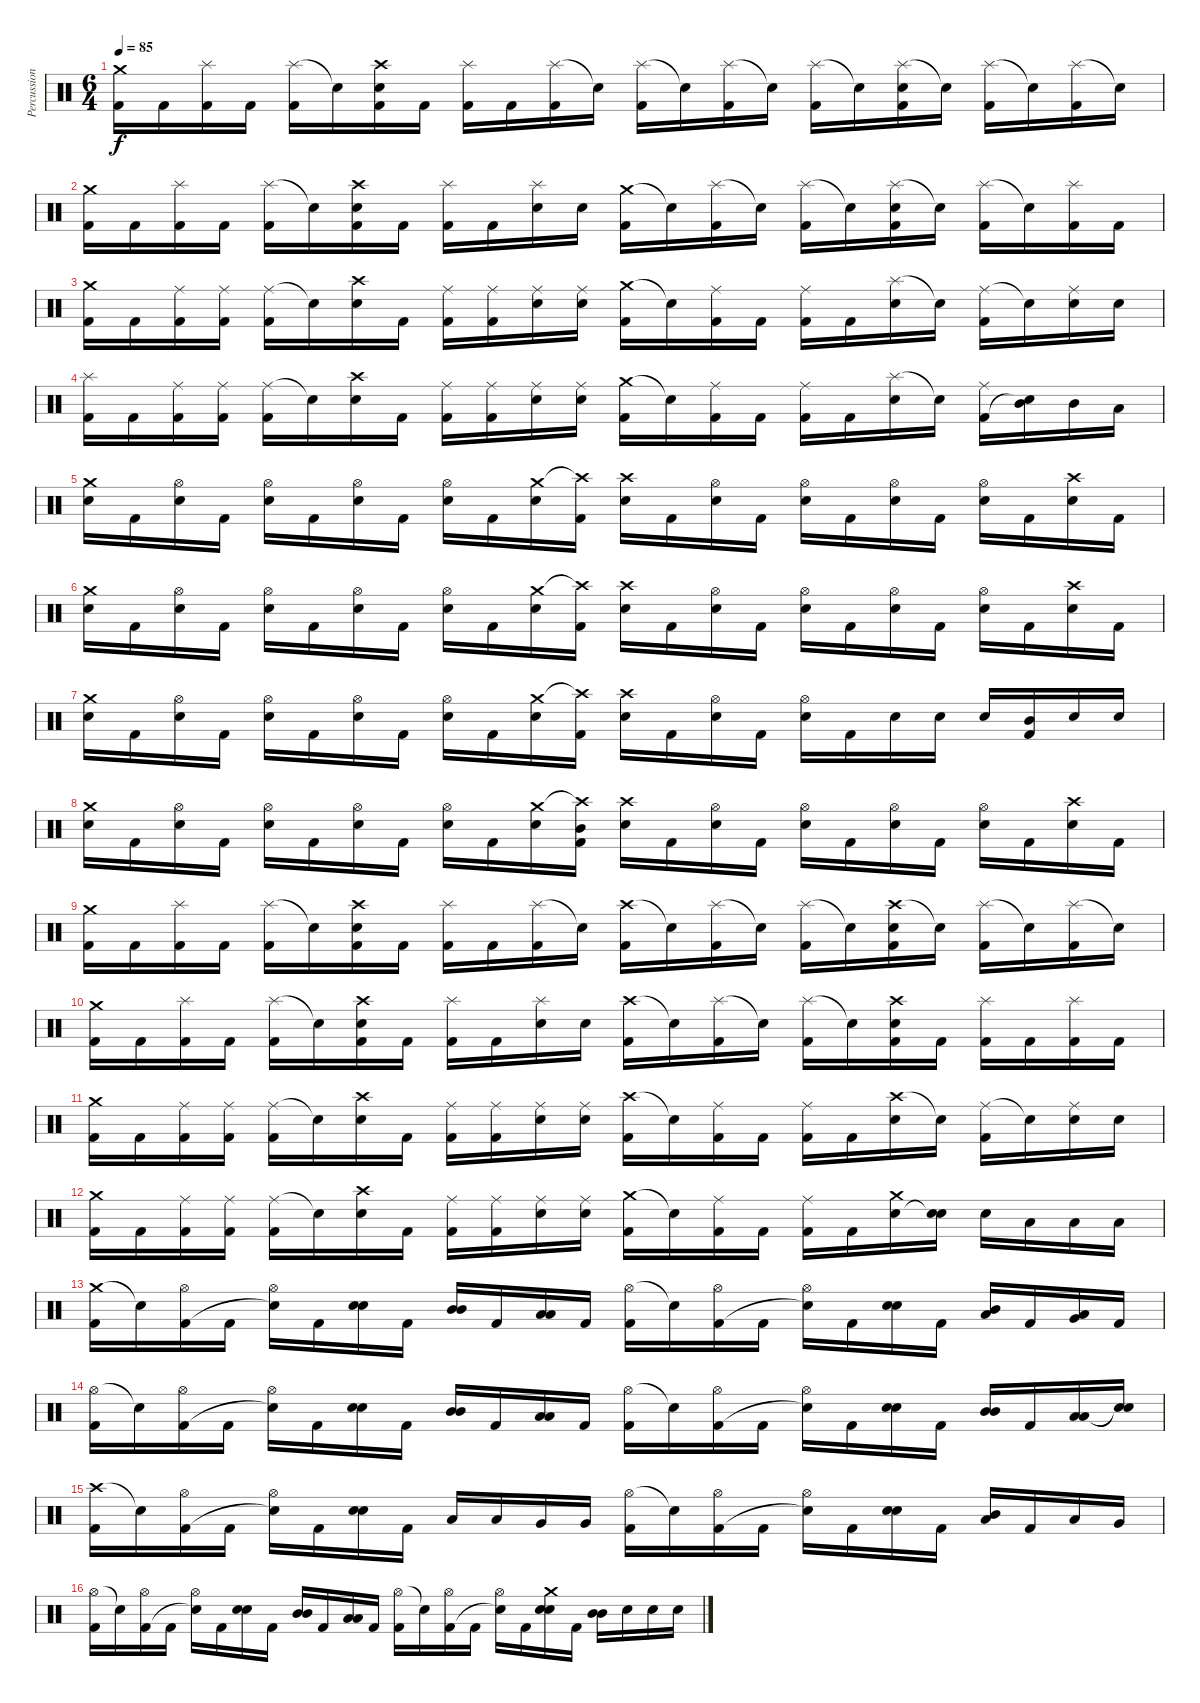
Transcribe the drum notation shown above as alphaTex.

\track ("Percussion" "Percussion") {instrument percussion}
\staff {score}
\articulation defaults
\ts (6 4)
\tempo 85
\clef neutral
\ks c
("Crash medium (hit)" "Kick (hit) 2").16{dy f} "Kick (hit) 2".16 ("Splash (hit)" "Kick (hit) 2").16 "Kick (hit) 2".16 ("Splash (hit)" "Kick (hit) 2").16 "Snare (hit)"{t}.16 ("Crash high (hit)" "Snare (hit) 2" "Kick (hit) 2").16 "Kick (hit) 2".16 ("Splash (hit)" "Kick (hit) 2").16 "Kick (hit) 2".16 ("Splash (hit)" "Kick (hit) 2").16 "Snare (hit)"{t}.16 ("Splash (hit)" "Kick (hit) 2").16 "Snare (hit)"{t}.16 ("Splash (hit)" "Kick (hit) 2").16 "Snare (hit)"{t}.16 ("Splash (hit)" "Kick (hit) 2").16 "Snare (hit)"{t}.16 ("Splash (hit)" "Snare (hit) 2" "Kick (hit) 2").16 "Snare (hit)"{t}.16 ("Splash (hit)" "Kick (hit) 2").16 "Snare (hit)"{t}.16 ("Splash (hit)" "Kick (hit) 2").16 "Snare (hit)"{t}.16 |
("Crash medium (hit)" "Kick (hit) 2").16 "Kick (hit) 2".16 ("Splash (hit)" "Kick (hit) 2").16 "Kick (hit) 2".16 ("Splash (hit)" "Kick (hit) 2").16 "Snare (hit)"{t}.16 ("Crash high (hit)" "Snare (hit) 2" "Kick (hit) 2").16 "Kick (hit) 2".16 ("Splash (hit)" "Kick (hit) 2").16 "Kick (hit) 2".16 ("Splash (hit)" "Snare (hit) 2").16 "Snare (hit) 2".16 ("Crash medium (hit)" "Kick (hit) 2").16 "Snare (hit)"{t}.16 ("Splash (hit)" "Kick (hit) 2").16 "Snare (hit)"{t}.16 ("Splash (hit)" "Kick (hit) 2").16 "Snare (hit)"{t}.16 ("Splash (hit)" "Snare (hit) 2" "Kick (hit) 2").16 "Snare (hit)"{t}.16 ("Splash (hit)" "Kick (hit) 2").16 "Snare (hit)"{t}.16 ("Splash (hit)" "Kick (hit) 2").16 "Kick (hit) 2".16 |
("Crash medium (hit)" "Kick (hit) 2").16 "Kick (hit) 2".16 ("Ride (middle)" "Kick (hit) 2").16 ("Ride (middle)" "Kick (hit) 2").16 ("Ride (middle)" "Kick (hit) 2").16 "Snare (hit)"{t}.16 ("Crash high (hit)" "Snare (hit) 2").16 "Kick (hit) 2".16 ("Ride (middle)" "Kick (hit) 2").16 ("Ride (middle)" "Kick (hit) 2").16 ("Ride (middle)" "Snare (hit) 2").16 ("Ride (middle)" "Snare (hit) 2").16 ("Crash medium (hit)" "Kick (hit) 2").16 "Snare (hit)"{t}.16 ("Ride (middle)" "Kick (hit) 2").16 "Kick (hit) 2".16 ("Ride (middle)" "Kick (hit) 2").16 "Kick (hit) 2".16 ("Splash (hit)" "Snare (hit) 2").16 "Snare (hit)"{t}.16 ("Ride (middle)" "Kick (hit) 2").16 "Snare (hit)"{t}.16 ("Ride (middle)" "Snare (hit) 2").16 "Snare (hit) 2".16 |
("Splash (hit)" "Kick (hit) 2").16 "Kick (hit) 2".16 ("Ride (middle)" "Kick (hit) 2").16 ("Ride (middle)" "Kick (hit) 2").16 ("Ride (middle)" "Kick (hit) 2").16 "Snare (hit)"{t}.16 ("Crash high (hit)" "Snare (hit) 2").16 "Kick (hit) 2".16 ("Ride (middle)" "Kick (hit) 2").16 ("Ride (middle)" "Kick (hit) 2").16 ("Ride (middle)" "Snare (hit) 2").16 ("Ride (middle)" "Snare (hit) 2").16 ("Crash medium (hit)" "Kick (hit) 2").16 "Snare (hit)"{t}.16 ("Ride (middle)" "Kick (hit) 2").16 "Kick (hit) 2".16 ("Ride (middle)" "Kick (hit) 2").16 "Kick (hit) 2".16 ("Splash (hit)" "Snare (hit) 2").16 "Snare (hit)"{t}.16 ("Ride (middle)" "Kick (hit) 2").16 ("Mid Tom (hit)" "Snare (hit)"{t}).16 "Mid Tom (hit)".16 "Low Tom (hit)".16 |
("Crash medium (hit)" "Snare (hit) 2").16 "Kick (hit) 2".16 ("Hi-Hat (open)" "Snare (hit) 2").16 "Kick (hit) 2".16 ("Hi-Hat (open)" "Snare (hit) 2").16 "Kick (hit) 2".16 ("Hi-Hat (open)" "Snare (hit) 2").16 "Kick (hit) 2".16 ("Hi-Hat (open)" "Snare (hit) 2").16 "Kick (hit) 2".16 ("Crash medium (hit)" "Snare (hit) 2").16 ("Crash high (hit)"{t} "Kick (hit) 2").16 ("Crash high (hit)" "Snare (hit) 2").16 "Kick (hit) 2".16 ("Hi-Hat (open)" "Snare (hit) 2").16 "Kick (hit) 2".16 ("Hi-Hat (open)" "Snare (hit) 2").16 "Kick (hit) 2".16 ("Hi-Hat (open)" "Snare (hit) 2").16 "Kick (hit) 2".16 ("Hi-Hat (open)" "Snare (hit) 2").16 "Kick (hit) 2".16 ("Crash high (hit)" "Snare (hit) 2").16 "Kick (hit) 2".16 |
("Crash medium (hit)" "Snare (hit) 2").16 "Kick (hit) 2".16 ("Hi-Hat (open)" "Snare (hit) 2").16 "Kick (hit) 2".16 ("Hi-Hat (open)" "Snare (hit) 2").16 "Kick (hit) 2".16 ("Hi-Hat (open)" "Snare (hit) 2").16 "Kick (hit) 2".16 ("Hi-Hat (open)" "Snare (hit) 2").16 "Kick (hit) 2".16 ("Crash medium (hit)" "Snare (hit) 2").16 ("Crash high (hit)"{t} "Kick (hit) 2").16 ("Crash high (hit)" "Snare (hit) 2").16 "Kick (hit) 2".16 ("Hi-Hat (open)" "Snare (hit) 2").16 "Kick (hit) 2".16 ("Hi-Hat (open)" "Snare (hit) 2").16 "Kick (hit) 2".16 ("Hi-Hat (open)" "Snare (hit) 2").16 "Kick (hit) 2".16 ("Hi-Hat (open)" "Snare (hit) 2").16 "Kick (hit) 2".16 ("Crash high (hit)" "Snare (hit) 2").16 "Kick (hit) 2".16 |
("Crash medium (hit)" "Snare (hit) 2").16 "Kick (hit) 2".16 ("Hi-Hat (open)" "Snare (hit) 2").16 "Kick (hit) 2".16 ("Hi-Hat (open)" "Snare (hit) 2").16 "Kick (hit) 2".16 ("Hi-Hat (open)" "Snare (hit) 2").16 "Kick (hit) 2".16 ("Hi-Hat (open)" "Snare (hit) 2").16 "Kick (hit) 2".16 ("Crash medium (hit)" "Snare (hit) 2").16 ("Crash high (hit)"{t} "Kick (hit) 2").16 ("Crash high (hit)" "Snare (hit) 2").16 "Kick (hit) 2".16 ("Hi-Hat (open)" "Snare (hit) 2").16 "Kick (hit) 2".16 ("Hi-Hat (open)" "Snare (hit) 2").16 "Kick (hit) 2".16 "Snare (hit) 2".16 "Snare (hit) 2".16 "Snare (hit) 2".16 ("Mid Tom (hit)" "Kick (hit) 2").16 "Snare (hit) 2".16 "Snare (hit) 2".16 |
("Crash medium (hit)" "Snare (hit) 2").16 "Kick (hit) 2".16 ("Hi-Hat (open)" "Snare (hit) 2").16 "Kick (hit) 2".16 ("Hi-Hat (open)" "Snare (hit) 2").16 "Kick (hit) 2".16 ("Hi-Hat (open)" "Snare (hit) 2").16 "Kick (hit) 2".16 ("Hi-Hat (open)" "Snare (hit) 2").16 "Kick (hit) 2".16 ("Crash medium (hit)" "Snare (hit) 2").16 ("Crash high (hit)"{t} "Mid Tom (hit)" "Kick (hit) 2").16 ("Crash high (hit)" "Snare (hit) 2").16 "Kick (hit) 2".16 ("Hi-Hat (open)" "Snare (hit) 2").16 "Kick (hit) 2".16 ("Hi-Hat (open)" "Snare (hit) 2").16 "Kick (hit) 2".16 ("Hi-Hat (open)" "Snare (hit) 2").16 "Kick (hit) 2".16 ("Hi-Hat (open)" "Snare (hit) 2").16 "Kick (hit) 2".16 ("Crash high (hit)" "Snare (hit) 2").16 "Kick (hit) 2".16 |
("Crash medium (hit)" "Kick (hit) 2").16 "Kick (hit) 2".16 ("Splash (hit)" "Kick (hit) 2").16 "Kick (hit) 2".16 ("Splash (hit)" "Kick (hit) 2").16 "Snare (hit)"{t}.16 ("Crash high (hit)" "Snare (hit) 2" "Kick (hit) 2").16 "Kick (hit) 2".16 ("Splash (hit)" "Kick (hit) 2").16 "Kick (hit) 2".16 ("Splash (hit)" "Kick (hit) 2").16 "Snare (hit)"{t}.16 ("Crash high (hit)" "Kick (hit) 2").16 "Snare (hit)"{t}.16 ("Splash (hit)" "Kick (hit) 2").16 "Snare (hit)"{t}.16 ("Splash (hit)" "Kick (hit) 2").16 "Snare (hit)"{t}.16 ("Crash high (hit)" "Snare (hit) 2" "Kick (hit) 2").16 "Snare (hit)"{t}.16 ("Splash (hit)" "Kick (hit) 2").16 "Snare (hit)"{t}.16 ("Splash (hit)" "Kick (hit) 2").16 "Snare (hit)"{t}.16 |
("Crash medium (hit)" "Kick (hit) 2").16 "Kick (hit) 2".16 ("Splash (hit)" "Kick (hit) 2").16 "Kick (hit) 2".16 ("Splash (hit)" "Kick (hit) 2").16 "Snare (hit)"{t}.16 ("Crash high (hit)" "Snare (hit) 2" "Kick (hit) 2").16 "Kick (hit) 2".16 ("Splash (hit)" "Kick (hit) 2").16 "Kick (hit) 2".16 ("Splash (hit)" "Snare (hit) 2").16 "Snare (hit) 2".16 ("Crash high (hit)" "Kick (hit) 2").16 "Snare (hit)"{t}.16 ("Splash (hit)" "Kick (hit) 2").16 "Snare (hit)"{t}.16 ("Splash (hit)" "Kick (hit) 2").16 "Snare (hit)"{t}.16 ("Crash high (hit)" "Snare (hit) 2" "Kick (hit) 2").16 "Kick (hit) 2".16 ("Splash (hit)" "Kick (hit) 2").16 "Kick (hit) 2".16 ("Splash (hit)" "Kick (hit) 2").16 "Kick (hit) 2".16 |
("Crash medium (hit)" "Kick (hit) 2").16 "Kick (hit) 2".16 ("Ride (middle)" "Kick (hit) 2").16 ("Ride (middle)" "Kick (hit) 2").16 ("Ride (middle)" "Kick (hit) 2").16 "Snare (hit)"{t}.16 ("Crash high (hit)" "Snare (hit) 2").16 "Kick (hit) 2".16 ("Ride (middle)" "Kick (hit) 2").16 ("Ride (middle)" "Kick (hit) 2").16 ("Ride (middle)" "Snare (hit) 2").16 ("Ride (middle)" "Snare (hit) 2").16 ("Crash high (hit)" "Kick (hit) 2").16 "Snare (hit)"{t}.16 ("Ride (middle)" "Kick (hit) 2").16 "Kick (hit) 2".16 ("Ride (middle)" "Kick (hit) 2").16 "Kick (hit) 2".16 ("Crash high (hit)" "Snare (hit) 2").16 "Snare (hit)"{t}.16 ("Ride (middle)" "Kick (hit) 2").16 "Snare (hit)"{t}.16 ("Ride (middle)" "Snare (hit) 2").16 "Snare (hit) 2".16 |
("Crash medium (hit)" "Kick (hit) 2").16 "Kick (hit) 2".16 ("Ride (middle)" "Kick (hit) 2").16 ("Ride (middle)" "Kick (hit) 2").16 ("Ride (middle)" "Kick (hit) 2").16 "Snare (hit)"{t}.16 ("Crash high (hit)" "Snare (hit) 2").16 "Kick (hit) 2".16 ("Ride (middle)" "Kick (hit) 2").16 ("Ride (middle)" "Kick (hit) 2").16 ("Ride (middle)" "Snare (hit) 2").16 ("Ride (middle)" "Snare (hit) 2").16 ("Crash medium (hit)" "Kick (hit) 2").16 "Snare (hit)"{t}.16 ("Ride (middle)" "Kick (hit) 2").16 "Kick (hit) 2".16 ("Ride (middle)" "Kick (hit) 2").16 "Kick (hit) 2".16 ("Crash medium (hit)" "Snare (hit) 2").16 ("Snare (hit) 2" "Snare (hit)"{t}).16 "Snare (hit) 2".16 "Low Tom (hit)".16 "Low Tom (hit)".16 "Low Tom (hit)".16 |
("Crash medium (hit)" "Kick (hit) 2").16 "Snare (hit)"{t}.16 ("Hi-Hat (open)" "Kick (hit) 2").16 "Kick (hit) 2".16 ("Hi-Hat (open)" "Snare (hit)"{t}).16 "Kick (hit) 2".16 ("Snare (hit) 2" "Snare (hit) 2").16{bd 60} "Kick (hit) 2".16 ("Mid Tom (hit)" "Mid Tom (hit)").16{bd 60} "Kick (hit) 2".16 ("Low Tom (hit)" "Low Tom (hit)").16{bd 60} "Kick (hit) 2".16 ("Hi-Hat (open)" "Kick (hit) 2").16 "Snare (hit)"{t}.16 ("Hi-Hat (open)" "Kick (hit) 2").16 "Kick (hit) 2".16 ("Hi-Hat (open)" "Snare (hit)"{t}).16 "Kick (hit) 2".16 ("Snare (hit) 2" "Snare (hit) 2").16{bd 60} "Kick (hit) 2".16 ("Low Tom (hit)" "Mid Tom (hit)").16{bd 60} "Kick (hit) 2".16 ("Very Low Tom (hit)" "Low Tom (hit)").16{bd 60} "Kick (hit) 2".16 |
("Hi-Hat (open)" "Kick (hit) 2").16 "Snare (hit)"{t}.16 ("Hi-Hat (open)" "Kick (hit) 2").16 "Kick (hit) 2".16 ("Hi-Hat (open)" "Snare (hit)"{t}).16 "Kick (hit) 2".16 ("Snare (hit) 2" "Snare (hit) 2").16{bd 60} "Kick (hit) 2".16 ("Mid Tom (hit)" "Mid Tom (hit)").16{bd 60} "Kick (hit) 2".16 ("Low Tom (hit)" "Low Tom (hit)").16{bd 60} "Kick (hit) 2".16 ("Hi-Hat (open)" "Kick (hit) 2").16 "Snare (hit)"{t}.16 ("Hi-Hat (open)" "Kick (hit) 2").16 "Kick (hit) 2".16 ("Hi-Hat (open)" "Snare (hit)"{t}).16 "Kick (hit) 2".16 ("Snare (hit) 2" "Snare (hit) 2").16{bd 60} "Kick (hit) 2".16 ("Mid Tom (hit)" "Mid Tom (hit)").16{bd 60} "Kick (hit) 2".16 ("Low Tom (hit)" "Low Tom (hit)").16{bd 60} ("Snare (hit)"{t} "Snare (hit)"{t}).16 |
("Crash high (hit)" "Kick (hit) 2").16 "Snare (hit)"{t}.16 ("Hi-Hat (open)" "Kick (hit) 2").16 "Kick (hit) 2".16 ("Hi-Hat (open)" "Snare (hit)"{t}).16 "Kick (hit) 2".16 ("Snare (hit) 2" "Snare (hit) 2").16{bd 60} "Kick (hit) 2".16 "Low Tom (hit)".16 "Low Tom (hit)".16 "Very Low Tom (hit)".16 "Very Low Tom (hit)".16 ("Hi-Hat (open)" "Kick (hit) 2").16 "Snare (hit)"{t}.16 ("Hi-Hat (open)" "Kick (hit) 2").16 "Kick (hit) 2".16 ("Hi-Hat (open)" "Snare (hit)"{t}).16 "Kick (hit) 2".16 ("Snare (hit) 2" "Snare (hit) 2").16{bd 60} "Kick (hit) 2".16 ("Low Tom (hit)" "Mid Tom (hit)").16{bd 60} "Kick (hit) 2".16 "Low Tom (hit)".16 "Very Low Tom (hit)".16 |
("Hi-Hat (open)" "Kick (hit) 2").16 "Snare (hit)"{t}.16 ("Hi-Hat (open)" "Kick (hit) 2").16 "Kick (hit) 2".16 ("Hi-Hat (open)" "Snare (hit)"{t}).16 "Kick (hit) 2".16 ("Snare (hit) 2" "Snare (hit) 2").16{bd 60} "Kick (hit) 2".16 ("Mid Tom (hit)" "Mid Tom (hit)").16{bd 60} "Kick (hit) 2".16 ("Low Tom (hit)" "Low Tom (hit)").16{bd 60} "Kick (hit) 2".16 ("Hi-Hat (open)" "Kick (hit) 2").16 "Snare (hit)"{t}.16 ("Hi-Hat (open)" "Kick (hit) 2").16 "Kick (hit) 2".16 ("Hi-Hat (open)" "Snare (hit)"{t}).16 "Kick (hit) 2".16 ("Crash medium (hit)" "Snare (hit) 2" "Snare (hit) 2").16{bu 60} "Kick (hit) 2".16 ("Mid Tom (hit)" "Mid Tom (hit)").16{bd 60} "Snare (hit) 2".16 "Snare (hit) 2".16 "Snare (hit) 2".16
